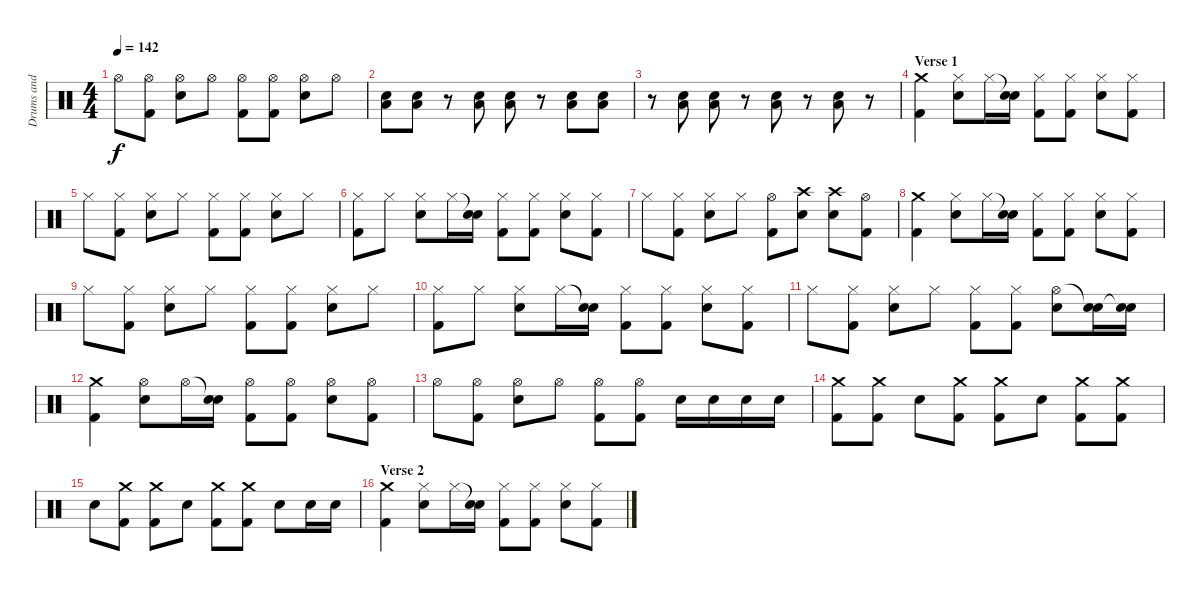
\track ("Drums and Percussion" "Drums and ") {instrument percussion}
\staff {score}
\articulation defaults
\ts (4 4)
\tempo 142
\clef neutral
\ks c "Hi-Hat (open)".8{dy f}
("Hi-Hat (open)" "Kick (hit) 2").8 ("Hi-Hat (open)" "Electric Snare (hit)").8 "Hi-Hat (open)".8 ("Hi-Hat (open)" "Kick (hit) 2").8 ("Hi-Hat (open)" "Kick (hit) 2").8 ("Hi-Hat (open)" "Electric Snare (hit)").8 "Hi-Hat (open)".8 |
("Electric Snare (hit)" "Low Floor Tom (hit)").8 ("Electric Snare (hit)" "Low Floor Tom (hit)").8 r.8 ("Electric Snare (hit)" "Low Floor Tom (hit)").8 ("Electric Snare (hit)" "Low Floor Tom (hit)").8 r.8 ("Electric Snare (hit)" "Low Floor Tom (hit)").8 ("Electric Snare (hit)" "Low Floor Tom (hit)").8 |
r.8 ("Electric Snare (hit)" "Low Floor Tom (hit)").8 ("Electric Snare (hit)" "Low Floor Tom (hit)").8 r.8 ("Electric Snare (hit)" "Low Floor Tom (hit)").8 r.8 ("Electric Snare (hit)" "Low Floor Tom (hit)").8 r.8 |
\section ("" "Verse 1")
("Crash medium (hit)" "Kick (hit) 2").4 ("Hi-Hat (closed)" "Electric Snare (hit)").8 "Hi-Hat (closed)".16 ("Snare (hit)"{t} "Electric Snare (hit)").16 ("Hi-Hat (closed)" "Kick (hit) 2").8 ("Hi-Hat (closed)" "Kick (hit) 2").8 ("Hi-Hat (closed)" "Electric Snare (hit)").8 ("Hi-Hat (closed)" "Kick (hit) 2").8 |
"Hi-Hat (closed)".8 ("Hi-Hat (closed)" "Kick (hit) 2").8 ("Hi-Hat (closed)" "Electric Snare (hit)").8 "Hi-Hat (closed)".8 ("Hi-Hat (closed)" "Kick (hit) 2").8 ("Hi-Hat (closed)" "Kick (hit) 2").8 ("Hi-Hat (closed)" "Electric Snare (hit)").8 "Hi-Hat (closed)".8 |
("Hi-Hat (closed)" "Kick (hit) 2").8 "Hi-Hat (closed)".8 ("Hi-Hat (closed)" "Electric Snare (hit)").8 "Hi-Hat (closed)".16 ("Snare (hit)"{t} "Electric Snare (hit)").16 ("Hi-Hat (closed)" "Kick (hit) 2").8 ("Hi-Hat (closed)" "Kick (hit) 2").8 ("Hi-Hat (closed)" "Electric Snare (hit)").8 ("Hi-Hat (closed)" "Kick (hit) 2").8 |
"Hi-Hat (closed)".8 ("Hi-Hat (closed)" "Kick (hit) 2").8 ("Hi-Hat (closed)" "Electric Snare (hit)").8 "Hi-Hat (closed)".8 ("Hi-Hat (open)" "Kick (hit) 2").8 ("Crash high (hit)" "Electric Snare (hit)").8 ("Crash high (hit)" "Electric Snare (hit)").8 ("Hi-Hat (open)" "Kick (hit) 2").8 |
("Crash medium (hit)" "Kick (hit) 2").4 ("Hi-Hat (closed)" "Electric Snare (hit)").8 "Hi-Hat (closed)".16 ("Snare (hit)"{t} "Electric Snare (hit)").16 ("Hi-Hat (closed)" "Kick (hit) 2").8 ("Hi-Hat (closed)" "Kick (hit) 2").8 ("Hi-Hat (closed)" "Electric Snare (hit)").8 ("Hi-Hat (closed)" "Kick (hit) 2").8 |
"Hi-Hat (closed)".8 ("Hi-Hat (closed)" "Kick (hit) 2").8 ("Hi-Hat (closed)" "Electric Snare (hit)").8 "Hi-Hat (closed)".8 ("Hi-Hat (closed)" "Kick (hit) 2").8 ("Hi-Hat (closed)" "Kick (hit) 2").8 ("Hi-Hat (closed)" "Electric Snare (hit)").8 "Hi-Hat (closed)".8 |
("Hi-Hat (closed)" "Kick (hit) 2").8 "Hi-Hat (closed)".8 ("Hi-Hat (closed)" "Electric Snare (hit)").8 "Hi-Hat (closed)".16 ("Snare (hit)"{t} "Electric Snare (hit)").16 ("Hi-Hat (closed)" "Kick (hit) 2").8 ("Hi-Hat (closed)" "Kick (hit) 2").8 ("Hi-Hat (closed)" "Electric Snare (hit)").8 ("Hi-Hat (closed)" "Kick (hit) 2").8 |
"Hi-Hat (closed)".8 ("Hi-Hat (closed)" "Kick (hit) 2").8 ("Hi-Hat (closed)" "Electric Snare (hit)").8 "Hi-Hat (closed)".8 ("Hi-Hat (closed)" "Kick (hit) 2").8 ("Hi-Hat (closed)" "Kick (hit) 2").8 ("Hi-Hat (open)" "Electric Snare (hit)").8 ("Snare (hit)"{t} "Electric Snare (hit)").16 ("Snare (hit)"{t} "Electric Snare (hit)").16 |
("Crash medium (hit)" "Kick (hit) 2").4 ("Hi-Hat (open)" "Electric Snare (hit)").8 "Hi-Hat (open)".16 ("Snare (hit)"{t} "Electric Snare (hit)").16 ("Hi-Hat (open)" "Kick (hit) 2").8 ("Hi-Hat (open)" "Kick (hit) 2").8 ("Hi-Hat (open)" "Electric Snare (hit)").8 ("Hi-Hat (open)" "Kick (hit) 2").8 |
"Hi-Hat (open)".8 ("Hi-Hat (open)" "Kick (hit) 2").8 ("Hi-Hat (open)" "Electric Snare (hit)").8 "Hi-Hat (open)".8 ("Hi-Hat (open)" "Kick (hit) 2").8 ("Hi-Hat (open)" "Kick (hit) 2").8 "Electric Snare (hit)".16 "Electric Snare (hit)".16 "Electric Snare (hit)".16 "Electric Snare (hit)".16 |
("Crash medium (hit)" "Kick (hit) 2").8 ("Crash medium (hit)" "Kick (hit) 2").8 "Electric Snare (hit)".8 ("Crash medium (hit)" "Kick (hit) 2").8 ("Crash medium (hit)" "Kick (hit) 2").8 "Electric Snare (hit)".8 ("Crash medium (hit)" "Kick (hit) 2").8 ("Crash medium (hit)" "Kick (hit) 2").8 |
"Electric Snare (hit)".8 ("Crash medium (hit)" "Kick (hit) 2").8 ("Crash medium (hit)" "Kick (hit) 2").8 "Electric Snare (hit)".8 ("Crash medium (hit)" "Kick (hit) 2").8 ("Crash medium (hit)" "Kick (hit) 2").8 "Electric Snare (hit)".8 "Electric Snare (hit)".16 "Electric Snare (hit)".16 |
\section ("" "Verse 2")
("Crash medium (hit)" "Kick (hit) 2").4 ("Hi-Hat (closed)" "Electric Snare (hit)").8 "Hi-Hat (closed)".16 ("Snare (hit)"{t} "Electric Snare (hit)").16 ("Hi-Hat (closed)" "Kick (hit) 2").8 ("Hi-Hat (closed)" "Kick (hit) 2").8 ("Hi-Hat (closed)" "Electric Snare (hit)").8 ("Hi-Hat (closed)" "Kick (hit) 2").8
